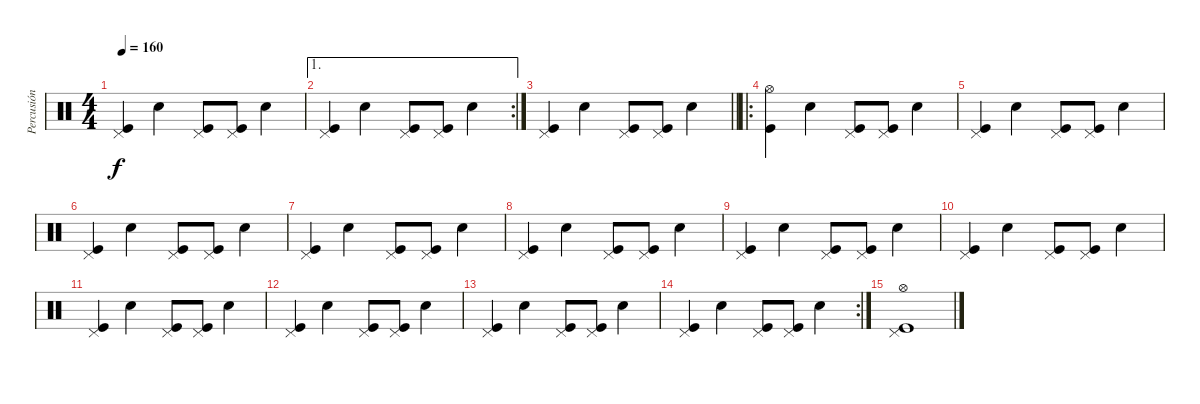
\track ("Percusión" "Percusión") {instrument percussion}
\staff {score}
\articulation defaults
\ts (4 4)
\tempo 160
\clef neutral
\ks c
("Pedal Hi-Hat (hit)" "Kick (hit)").4{dy f} "Snare (hit) 2".4 ("Pedal Hi-Hat (hit)" "Kick (hit)").8 ("Pedal Hi-Hat (hit)" "Kick (hit)").8 "Snare (hit) 2".4 |
\ae 1
\rc 2
("Pedal Hi-Hat (hit)" "Kick (hit)").4 "Snare (hit) 2".4 ("Pedal Hi-Hat (hit)" "Kick (hit)").8 ("Pedal Hi-Hat (hit)" "Kick (hit)").8 "Snare (hit) 2".4 |
\barLineRight lightlight
("Pedal Hi-Hat (hit)" "Kick (hit)").4 "Snare (hit) 2".4 ("Pedal Hi-Hat (hit)" "Kick (hit)").8 ("Pedal Hi-Hat (hit)" "Kick (hit)").8 "Snare (hit) 2".4 |
\ro
("Hi-Hat (open)" "Kick (hit)").4 "Snare (hit) 2".4 ("Pedal Hi-Hat (hit)" "Kick (hit)").8 ("Pedal Hi-Hat (hit)" "Kick (hit)").8 "Snare (hit) 2".4 |
("Pedal Hi-Hat (hit)" "Kick (hit)").4 "Snare (hit) 2".4 ("Pedal Hi-Hat (hit)" "Kick (hit)").8 ("Pedal Hi-Hat (hit)" "Kick (hit)").8 "Snare (hit) 2".4 |
("Pedal Hi-Hat (hit)" "Kick (hit)").4 "Snare (hit) 2".4 ("Pedal Hi-Hat (hit)" "Kick (hit)").8 ("Pedal Hi-Hat (hit)" "Kick (hit)").8 "Snare (hit) 2".4 |
("Pedal Hi-Hat (hit)" "Kick (hit)").4 "Snare (hit) 2".4 ("Pedal Hi-Hat (hit)" "Kick (hit)").8 ("Pedal Hi-Hat (hit)" "Kick (hit)").8 "Snare (hit) 2".4 |
("Pedal Hi-Hat (hit)" "Kick (hit)").4 "Snare (hit) 2".4 ("Pedal Hi-Hat (hit)" "Kick (hit)").8 ("Pedal Hi-Hat (hit)" "Kick (hit)").8 "Snare (hit) 2".4 |
("Pedal Hi-Hat (hit)" "Kick (hit)").4 "Snare (hit) 2".4 ("Pedal Hi-Hat (hit)" "Kick (hit)").8 ("Pedal Hi-Hat (hit)" "Kick (hit)").8 "Snare (hit) 2".4 |
("Pedal Hi-Hat (hit)" "Kick (hit)").4 "Snare (hit) 2".4 ("Pedal Hi-Hat (hit)" "Kick (hit)").8 ("Pedal Hi-Hat (hit)" "Kick (hit)").8 "Snare (hit) 2".4 |
("Pedal Hi-Hat (hit)" "Kick (hit)").4 "Snare (hit) 2".4 ("Pedal Hi-Hat (hit)" "Kick (hit)").8 ("Pedal Hi-Hat (hit)" "Kick (hit)").8 "Snare (hit) 2".4 |
("Pedal Hi-Hat (hit)" "Kick (hit)").4 "Snare (hit) 2".4 ("Pedal Hi-Hat (hit)" "Kick (hit)").8 ("Pedal Hi-Hat (hit)" "Kick (hit)").8 "Snare (hit) 2".4 |
("Pedal Hi-Hat (hit)" "Kick (hit)").4 "Snare (hit) 2".4 ("Pedal Hi-Hat (hit)" "Kick (hit)").8 ("Pedal Hi-Hat (hit)" "Kick (hit)").8 "Snare (hit) 2".4 |
\rc 2
("Pedal Hi-Hat (hit)" "Kick (hit)").4 "Snare (hit) 2".4 ("Pedal Hi-Hat (hit)" "Kick (hit)").8 ("Pedal Hi-Hat (hit)" "Kick (hit)").8 "Snare (hit) 2".4 |
("Pedal Hi-Hat (hit)" "Hi-Hat (open)" "Kick (hit)").1
